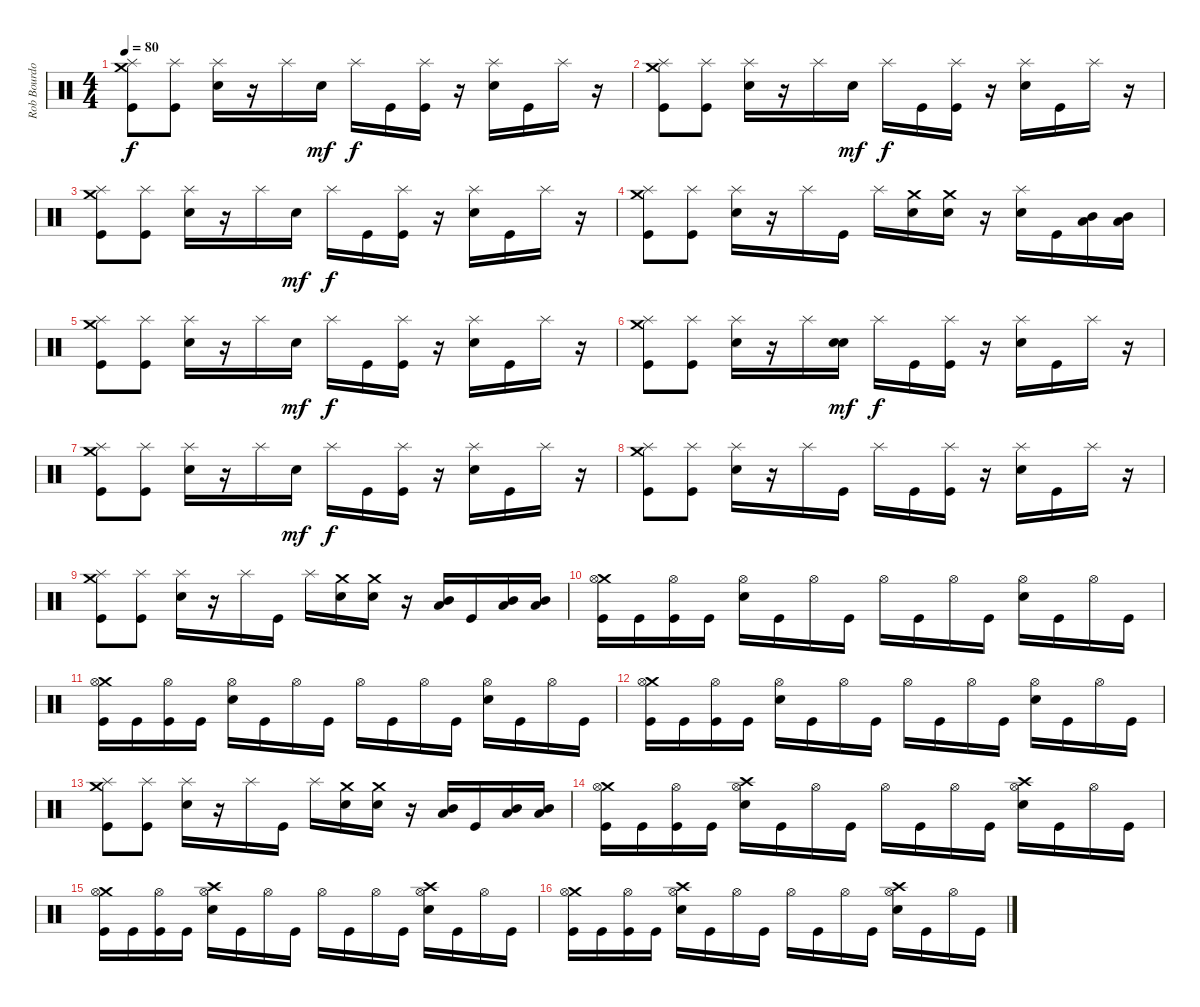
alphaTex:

\track ("Rob Bourdon" "Rob Bourdo") {instrument percussion}
\staff {score}
\articulation defaults
\ts (4 4)
\tempo 80
\clef neutral
\ks c
("Crash medium (hit)" "Splash (hit)" "Kick (hit)").8{dy f} ("Splash (hit)" "Kick (hit)").8 ("Splash (hit)" "Snare (hit) 2").16 r.16 "Splash (hit)".16 "Snare (hit) 2".16{dy mf} "Splash (hit)".16{dy f} "Kick (hit)".16 ("Splash (hit)" "Kick (hit)").16 r.16 ("Splash (hit)" "Snare (hit) 2").16 "Kick (hit)".16 "Splash (hit)".16 r.16 |
("Crash medium (hit)" "Splash (hit)" "Kick (hit)").8 ("Splash (hit)" "Kick (hit)").8 ("Splash (hit)" "Snare (hit) 2").16 r.16 "Splash (hit)".16 "Snare (hit) 2".16{dy mf} "Splash (hit)".16{dy f} "Kick (hit)".16 ("Splash (hit)" "Kick (hit)").16 r.16 ("Splash (hit)" "Snare (hit) 2").16 "Kick (hit)".16 "Splash (hit)".16 r.16 |
("Crash medium (hit)" "Splash (hit)" "Kick (hit)").8 ("Splash (hit)" "Kick (hit)").8 ("Splash (hit)" "Snare (hit) 2").16 r.16 "Splash (hit)".16 "Snare (hit) 2".16{dy mf} "Splash (hit)".16{dy f} "Kick (hit)".16 ("Splash (hit)" "Kick (hit)").16 r.16 ("Splash (hit)" "Snare (hit) 2").16 "Kick (hit)".16 "Splash (hit)".16 r.16 |
("Crash medium (hit)" "Splash (hit)" "Kick (hit)").8 ("Splash (hit)" "Kick (hit)").8 ("Splash (hit)" "Snare (hit) 2").16 r.16 "Splash (hit)".16 "Kick (hit)".16 "Splash (hit)".16 ("Crash medium (hit)" "Snare (hit) 2").16 ("Crash medium (hit)" "Snare (hit) 2").16 r.16 ("Splash (hit)" "Snare (hit) 2").16 "Kick (hit)".16 ("Mid Tom (hit)" "Low Tom (hit)").16 ("Mid Tom (hit)" "Low Tom (hit)").16 |
("Crash medium (hit)" "Splash (hit)" "Kick (hit)").8 ("Splash (hit)" "Kick (hit)").8 ("Splash (hit)" "Snare (hit) 2").16 r.16 "Splash (hit)".16 "Snare (hit) 2".16{dy mf} "Splash (hit)".16{dy f} "Kick (hit)".16 ("Splash (hit)" "Kick (hit)").16 r.16 ("Splash (hit)" "Snare (hit) 2").16 "Kick (hit)".16 "Splash (hit)".16 r.16 |
("Crash medium (hit)" "Splash (hit)" "Kick (hit)").8 ("Splash (hit)" "Kick (hit)").8 ("Splash (hit)" "Snare (hit) 2").16 r.16 "Splash (hit)".16 ("Electric Snare (hit)" "Snare (hit) 2").16{dy mf} "Splash (hit)".16{dy f} "Kick (hit)".16 ("Splash (hit)" "Kick (hit)").16 r.16 ("Splash (hit)" "Snare (hit) 2").16 "Kick (hit)".16 "Splash (hit)".16 r.16 |
("Crash medium (hit)" "Splash (hit)" "Kick (hit)").8 ("Splash (hit)" "Kick (hit)").8 ("Splash (hit)" "Snare (hit) 2").16 r.16 "Splash (hit)".16 "Snare (hit) 2".16{dy mf} "Splash (hit)".16{dy f} "Kick (hit)".16 ("Splash (hit)" "Kick (hit)").16 r.16 ("Splash (hit)" "Snare (hit) 2").16 "Kick (hit)".16 "Splash (hit)".16 r.16 |
("Crash medium (hit)" "Splash (hit)" "Kick (hit)").8 ("Splash (hit)" "Kick (hit)").8 ("Splash (hit)" "Snare (hit) 2").16 r.16 "Splash (hit)".16 "Kick (hit)".16 "Splash (hit)".16 "Kick (hit)".16 ("Splash (hit)" "Kick (hit)").16 r.16 ("Splash (hit)" "Snare (hit) 2").16 "Kick (hit)".16 "Splash (hit)".16 r.16 |
("Crash medium (hit)" "Splash (hit)" "Kick (hit)").8 ("Splash (hit)" "Kick (hit)").8 ("Splash (hit)" "Snare (hit) 2").16 r.16 "Splash (hit)".16 "Kick (hit)".16 "Splash (hit)".16 ("Crash medium (hit)" "Snare (hit)").16 ("Crash medium (hit)" "Snare (hit)").16 r.16 ("Mid Tom (hit)" "Low Tom (hit)").16 "Kick (hit)".16 ("Mid Tom (hit)" "Low Tom (hit)").16 ("Mid Tom (hit)" "Low Tom (hit)").16 |
("Crash medium (hit)" "Hi-Hat (open)" "Kick (hit)").16 "Kick (hit)".16 ("Hi-Hat (open)" "Kick (hit)").16 "Kick (hit)".16 ("Hi-Hat (open)" "Snare (hit) 2").16 "Kick (hit)".16 "Hi-Hat (open)".16 "Kick (hit)".16 "Hi-Hat (open)".16 "Kick (hit)".16 "Hi-Hat (open)".16 "Kick (hit)".16 ("Hi-Hat (open)" "Snare (hit) 2").16 "Kick (hit)".16 "Hi-Hat (open)".16 "Kick (hit)".16 |
("Crash medium (hit)" "Hi-Hat (open)" "Kick (hit)").16 "Kick (hit)".16 ("Hi-Hat (open)" "Kick (hit)").16 "Kick (hit)".16 ("Hi-Hat (open)" "Snare (hit) 2").16 "Kick (hit)".16 "Hi-Hat (open)".16 "Kick (hit)".16 "Hi-Hat (open)".16 "Kick (hit)".16 "Hi-Hat (open)".16 "Kick (hit)".16 ("Hi-Hat (open)" "Snare (hit) 2").16 "Kick (hit)".16 "Hi-Hat (open)".16 "Kick (hit)".16 |
("Crash medium (hit)" "Hi-Hat (open)" "Kick (hit)").16 "Kick (hit)".16 ("Hi-Hat (open)" "Kick (hit)").16 "Kick (hit)".16 ("Hi-Hat (open)" "Snare (hit) 2").16 "Kick (hit)".16 "Hi-Hat (open)".16 "Kick (hit)".16 "Hi-Hat (open)".16 "Kick (hit)".16 "Hi-Hat (open)".16 "Kick (hit)".16 ("Hi-Hat (open)" "Snare (hit) 2").16 "Kick (hit)".16 "Hi-Hat (open)".16 "Kick (hit)".16 |
("Crash medium (hit)" "Splash (hit)" "Kick (hit)").8 ("Splash (hit)" "Kick (hit)").8 ("Splash (hit)" "Snare (hit) 2").16 r.16 "Splash (hit)".16 "Kick (hit)".16 "Splash (hit)".16 ("Crash medium (hit)" "Snare (hit)").16 ("Crash medium (hit)" "Snare (hit)").16 r.16 ("Mid Tom (hit)" "Low Tom (hit)").16 "Kick (hit)".16 ("Mid Tom (hit)" "Low Tom (hit)").16 ("Mid Tom (hit)" "Low Tom (hit)").16 |
("Crash medium (hit)" "Hi-Hat (open)" "Kick (hit)").16 "Kick (hit)".16 ("Hi-Hat (open)" "Kick (hit)").16 "Kick (hit)".16 ("Crash high (hit)" "Hi-Hat (open)" "Snare (hit) 2").16 "Kick (hit)".16 "Hi-Hat (open)".16 "Kick (hit)".16 "Hi-Hat (open)".16 "Kick (hit)".16 "Hi-Hat (open)".16 "Kick (hit)".16 ("Crash high (hit)" "Hi-Hat (open)" "Snare (hit) 2").16 "Kick (hit)".16 "Hi-Hat (open)".16 "Kick (hit)".16 |
("Crash medium (hit)" "Hi-Hat (open)" "Kick (hit)").16 "Kick (hit)".16 ("Hi-Hat (open)" "Kick (hit)").16 "Kick (hit)".16 ("Crash high (hit)" "Hi-Hat (open)" "Snare (hit) 2").16 "Kick (hit)".16 "Hi-Hat (open)".16 "Kick (hit)".16 "Hi-Hat (open)".16 "Kick (hit)".16 "Hi-Hat (open)".16 "Kick (hit)".16 ("Crash high (hit)" "Hi-Hat (open)" "Snare (hit) 2").16 "Kick (hit)".16 "Hi-Hat (open)".16 "Kick (hit)".16 |
("Crash medium (hit)" "Hi-Hat (open)" "Kick (hit)").16 "Kick (hit)".16 ("Hi-Hat (open)" "Kick (hit)").16 "Kick (hit)".16 ("Crash high (hit)" "Hi-Hat (open)" "Snare (hit) 2").16 "Kick (hit)".16 "Hi-Hat (open)".16 "Kick (hit)".16 "Hi-Hat (open)".16 "Kick (hit)".16 "Hi-Hat (open)".16 "Kick (hit)".16 ("Crash high (hit)" "Hi-Hat (open)" "Snare (hit) 2").16 "Kick (hit)".16 "Hi-Hat (open)".16 "Kick (hit)".16
